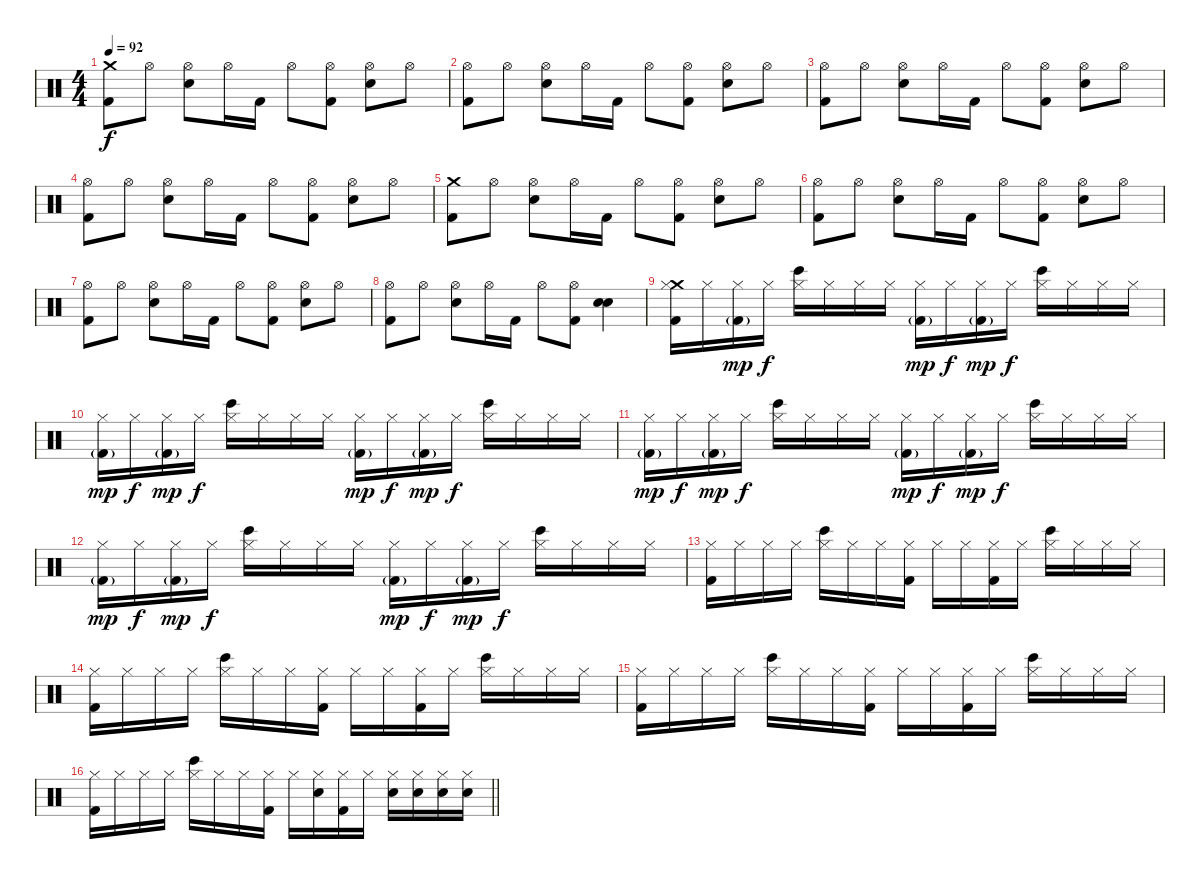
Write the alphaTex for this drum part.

\track "" {instrument percussion}
\staff {score}
\articulation defaults
\ts (4 4)
\tempo 92
\clef neutral
\ks c
("Crash medium (hit)" "Kick (hit) 2").8{dy f} "Hi-Hat (open)".8 ("Hi-Hat (open)" "Electric Snare (hit)").8 "Hi-Hat (open)".16 "Kick (hit) 2".16 "Hi-Hat (open)".8 ("Hi-Hat (open)" "Kick (hit) 2").8 ("Hi-Hat (open)" "Electric Snare (hit)").8 "Hi-Hat (open)".8 |
("Hi-Hat (open)" "Kick (hit) 2").8 "Hi-Hat (open)".8 ("Hi-Hat (open)" "Electric Snare (hit)").8 "Hi-Hat (open)".16 "Kick (hit) 2".16 "Hi-Hat (open)".8 ("Hi-Hat (open)" "Kick (hit) 2").8 ("Hi-Hat (open)" "Electric Snare (hit)").8 "Hi-Hat (open)".8 |
("Hi-Hat (open)" "Kick (hit) 2").8 "Hi-Hat (open)".8 ("Hi-Hat (open)" "Electric Snare (hit)").8 "Hi-Hat (open)".16 "Kick (hit) 2".16 "Hi-Hat (open)".8 ("Hi-Hat (open)" "Kick (hit) 2").8 ("Hi-Hat (open)" "Electric Snare (hit)").8 "Hi-Hat (open)".8 |
("Hi-Hat (open)" "Kick (hit) 2").8 "Hi-Hat (open)".8 ("Hi-Hat (open)" "Electric Snare (hit)").8 "Hi-Hat (open)".16 "Kick (hit) 2".16 "Hi-Hat (open)".8 ("Hi-Hat (open)" "Kick (hit) 2").8 ("Hi-Hat (open)" "Electric Snare (hit)").8 "Hi-Hat (open)".8 |
("Crash medium (hit)" "Kick (hit) 2").8 "Hi-Hat (open)".8 ("Hi-Hat (open)" "Electric Snare (hit)").8 "Hi-Hat (open)".16 "Kick (hit) 2".16 "Hi-Hat (open)".8 ("Hi-Hat (open)" "Kick (hit) 2").8 ("Hi-Hat (open)" "Electric Snare (hit)").8 "Hi-Hat (open)".8 |
("Hi-Hat (open)" "Kick (hit) 2").8 "Hi-Hat (open)".8 ("Hi-Hat (open)" "Electric Snare (hit)").8 "Hi-Hat (open)".16 "Kick (hit) 2".16 "Hi-Hat (open)".8 ("Hi-Hat (open)" "Kick (hit) 2").8 ("Hi-Hat (open)" "Electric Snare (hit)").8 "Hi-Hat (open)".8 |
("Hi-Hat (open)" "Kick (hit) 2").8 "Hi-Hat (open)".8 ("Hi-Hat (open)" "Electric Snare (hit)").8 "Hi-Hat (open)".16 "Kick (hit) 2".16 "Hi-Hat (open)".8 ("Hi-Hat (open)" "Kick (hit) 2").8 ("Hi-Hat (open)" "Electric Snare (hit)").8 "Hi-Hat (open)".8 |
("Hi-Hat (open)" "Kick (hit) 2").8 "Hi-Hat (open)".8 ("Hi-Hat (open)" "Electric Snare (hit)").8 "Hi-Hat (open)".16 "Kick (hit) 2".16 "Hi-Hat (open)".8 ("Hi-Hat (open)" "Kick (hit) 2").8 ("Electric Snare (hit)" "Electric Snare (hit)").4{bd 60} |
("Crash medium (hit)" "Hi-Hat (closed)" "Kick (hit) 2").16 "Hi-Hat (closed)".16 ("Hi-Hat (closed)" "Kick (hit) 2"{g}).16{dy mp} "Hi-Hat (closed)".16{dy f} ("Hi-Hat (closed)" "Bongo High (hit)").16 "Hi-Hat (closed)".16 "Hi-Hat (closed)".16 "Hi-Hat (closed)".16 ("Hi-Hat (closed)" "Kick (hit) 2"{g}).16{dy mp} "Hi-Hat (closed)".16{dy f} ("Hi-Hat (closed)" "Kick (hit) 2"{g}).16{dy mp} "Hi-Hat (closed)".16{dy f} ("Hi-Hat (closed)" "Bongo High (hit)").16 "Hi-Hat (closed)".16 "Hi-Hat (closed)".16 "Hi-Hat (closed)".16 |
("Hi-Hat (closed)" "Kick (hit) 2"{g}).16{dy mp} "Hi-Hat (closed)".16{dy f} ("Hi-Hat (closed)" "Kick (hit) 2"{g}).16{dy mp} "Hi-Hat (closed)".16{dy f} ("Hi-Hat (closed)" "Bongo High (hit)").16 "Hi-Hat (closed)".16 "Hi-Hat (closed)".16 "Hi-Hat (closed)".16 ("Hi-Hat (closed)" "Kick (hit) 2"{g}).16{dy mp} "Hi-Hat (closed)".16{dy f} ("Hi-Hat (closed)" "Kick (hit) 2"{g}).16{dy mp} "Hi-Hat (closed)".16{dy f} ("Hi-Hat (closed)" "Bongo High (hit)").16 "Hi-Hat (closed)".16 "Hi-Hat (closed)".16 "Hi-Hat (closed)".16 |
("Hi-Hat (closed)" "Kick (hit) 2"{g}).16{dy mp} "Hi-Hat (closed)".16{dy f} ("Hi-Hat (closed)" "Kick (hit) 2"{g}).16{dy mp} "Hi-Hat (closed)".16{dy f} ("Hi-Hat (closed)" "Bongo High (hit)").16 "Hi-Hat (closed)".16 "Hi-Hat (closed)".16 "Hi-Hat (closed)".16 ("Hi-Hat (closed)" "Kick (hit) 2"{g}).16{dy mp} "Hi-Hat (closed)".16{dy f} ("Hi-Hat (closed)" "Kick (hit) 2"{g}).16{dy mp} "Hi-Hat (closed)".16{dy f} ("Hi-Hat (closed)" "Bongo High (hit)").16 "Hi-Hat (closed)".16 "Hi-Hat (closed)".16 "Hi-Hat (closed)".16 |
("Hi-Hat (closed)" "Kick (hit) 2"{g}).16{dy mp} "Hi-Hat (closed)".16{dy f} ("Hi-Hat (closed)" "Kick (hit) 2"{g}).16{dy mp} "Hi-Hat (closed)".16{dy f} ("Hi-Hat (closed)" "Bongo High (hit)").16 "Hi-Hat (closed)".16 "Hi-Hat (closed)".16 "Hi-Hat (closed)".16 ("Hi-Hat (closed)" "Kick (hit) 2"{g}).16{dy mp} "Hi-Hat (closed)".16{dy f} ("Hi-Hat (closed)" "Kick (hit) 2"{g}).16{dy mp} "Hi-Hat (closed)".16{dy f} ("Hi-Hat (closed)" "Bongo High (hit)").16 "Hi-Hat (closed)".16 "Hi-Hat (closed)".16 "Hi-Hat (closed)".16 |
("Hi-Hat (closed)" "Kick (hit) 2").16 "Hi-Hat (closed)".16 "Hi-Hat (closed)".16 "Hi-Hat (closed)".16 ("Hi-Hat (closed)" "Bongo High (hit)").16 "Hi-Hat (closed)".16 "Hi-Hat (closed)".16 ("Hi-Hat (closed)" "Kick (hit) 2").16 "Hi-Hat (closed)".16 "Hi-Hat (closed)".16 ("Hi-Hat (closed)" "Kick (hit) 2").16 "Hi-Hat (closed)".16 ("Hi-Hat (closed)" "Bongo High (hit)").16 "Hi-Hat (closed)".16 "Hi-Hat (closed)".16 "Hi-Hat (closed)".16 |
("Hi-Hat (closed)" "Kick (hit) 2").16 "Hi-Hat (closed)".16 "Hi-Hat (closed)".16 "Hi-Hat (closed)".16 ("Hi-Hat (closed)" "Bongo High (hit)").16 "Hi-Hat (closed)".16 "Hi-Hat (closed)".16 ("Hi-Hat (closed)" "Kick (hit) 2").16 "Hi-Hat (closed)".16 "Hi-Hat (closed)".16 ("Hi-Hat (closed)" "Kick (hit) 2").16 "Hi-Hat (closed)".16 ("Hi-Hat (closed)" "Bongo High (hit)").16 "Hi-Hat (closed)".16 "Hi-Hat (closed)".16 "Hi-Hat (closed)".16 |
("Hi-Hat (closed)" "Kick (hit) 2").16 "Hi-Hat (closed)".16 "Hi-Hat (closed)".16 "Hi-Hat (closed)".16 ("Hi-Hat (closed)" "Bongo High (hit)").16 "Hi-Hat (closed)".16 "Hi-Hat (closed)".16 ("Hi-Hat (closed)" "Kick (hit) 2").16 "Hi-Hat (closed)".16 "Hi-Hat (closed)".16 ("Hi-Hat (closed)" "Kick (hit) 2").16 "Hi-Hat (closed)".16 ("Hi-Hat (closed)" "Bongo High (hit)").16 "Hi-Hat (closed)".16 "Hi-Hat (closed)".16 "Hi-Hat (closed)".16 |
\barLineRight lightlight
("Hi-Hat (closed)" "Kick (hit) 2").16 "Hi-Hat (closed)".16 "Hi-Hat (closed)".16 "Hi-Hat (closed)".16 ("Hi-Hat (closed)" "Bongo High (hit)").16 "Hi-Hat (closed)".16 "Hi-Hat (closed)".16 ("Hi-Hat (closed)" "Kick (hit) 2").16 "Hi-Hat (closed)".16 ("Hi-Hat (closed)" "Electric Snare (hit)").16 ("Hi-Hat (closed)" "Kick (hit) 2").16 "Hi-Hat (closed)".16 ("Hi-Hat (closed)" "Electric Snare (hit)").16 ("Hi-Hat (closed)" "Electric Snare (hit)").16 ("Hi-Hat (closed)" "Electric Snare (hit)").16 ("Hi-Hat (closed)" "Electric Snare (hit)").16
